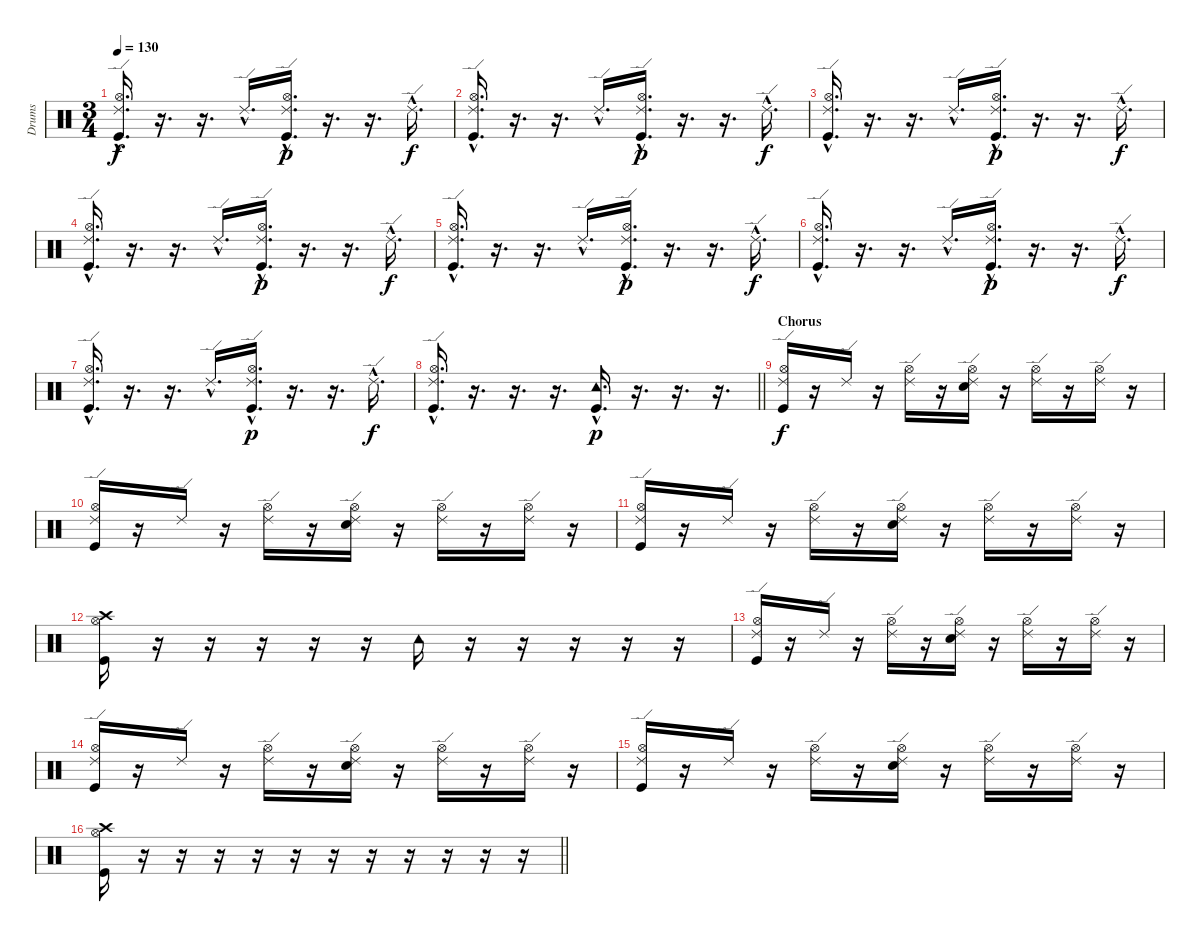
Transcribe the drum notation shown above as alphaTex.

\track ("Drums" "Drums") {instrument percussion}
\staff {score}
\articulation defaults
\ts (3 4)
\tempo 130
\clef neutral
\ks c
("Ride (edge) 2"{hac} "Hi-Hat (open)"{hac} "Kick (hit)"{hac}).16{d dy f} r.16{d} r.16{d} "Ride (edge) 2"{hac}.16{d} ("Ride (edge) 2"{hac} "Hi-Hat (open)"{hac} "Kick (hit)"{hac}).16{d dy p} r.16{d} r.16{d} "Ride (edge) 2"{hac}.16{d dy f} |
("Ride (edge) 2"{hac} "Hi-Hat (open)"{hac} "Kick (hit)"{hac}).16{d} r.16{d} r.16{d} "Ride (edge) 2"{hac}.16{d} ("Ride (edge) 2"{hac} "Hi-Hat (open)"{hac} "Kick (hit)"{hac}).16{d dy p} r.16{d} r.16{d} "Ride (edge) 2"{hac}.16{d dy f} |
("Ride (edge) 2"{hac} "Hi-Hat (open)"{hac} "Kick (hit)"{hac}).16{d} r.16{d} r.16{d} "Ride (edge) 2"{hac}.16{d} ("Ride (edge) 2"{hac} "Hi-Hat (open)"{hac} "Kick (hit)"{hac}).16{d dy p} r.16{d} r.16{d} "Ride (edge) 2"{hac}.16{d dy f} |
("Ride (edge) 2"{hac} "Hi-Hat (open)"{hac} "Kick (hit)"{hac}).16{d} r.16{d} r.16{d} "Ride (edge) 2"{hac}.16{d} ("Ride (edge) 2"{hac} "Hi-Hat (open)"{hac} "Kick (hit)"{hac}).16{d dy p} r.16{d} r.16{d} "Ride (edge) 2"{hac}.16{d dy f} |
("Ride (edge) 2"{hac} "Hi-Hat (open)"{hac} "Kick (hit)"{hac}).16{d} r.16{d} r.16{d} "Ride (edge) 2"{hac}.16{d} ("Ride (edge) 2"{hac} "Hi-Hat (open)"{hac} "Kick (hit)"{hac}).16{d dy p} r.16{d} r.16{d} "Ride (edge) 2"{hac}.16{d dy f} |
("Ride (edge) 2"{hac} "Hi-Hat (open)"{hac} "Kick (hit)"{hac}).16{d} r.16{d} r.16{d} "Ride (edge) 2"{hac}.16{d} ("Ride (edge) 2"{hac} "Hi-Hat (open)"{hac} "Kick (hit)"{hac}).16{d dy p} r.16{d} r.16{d} "Ride (edge) 2"{hac}.16{d dy f} |
("Ride (edge) 2"{hac} "Hi-Hat (open)"{hac} "Kick (hit)"{hac}).16{d} r.16{d} r.16{d} "Ride (edge) 2"{hac}.16{d} ("Ride (edge) 2"{hac} "Hi-Hat (open)"{hac} "Kick (hit)"{hac}).16{d dy p} r.16{d} r.16{d} "Ride (edge) 2"{hac}.16{d dy f} |
\barLineRight lightlight
("Ride (edge) 2"{hac} "Hi-Hat (open)"{hac} "Kick (hit)"{hac}).16{d} r.16{d} r.16{d} r.16{d} ("Tambourine (hit)"{hac} "Kick (hit)"{hac}).16{d dy p} r.16{d} r.16{d} r.16{d} |
\section ("" "Chorus")
("Ride (edge) 2" "Hi-Hat (open)" "Kick (hit)").16{dy f} r.16 "Ride (edge) 2".16 r.16 ("Ride (edge) 2" "Hi-Hat (open)").16 r.16 ("Ride (edge) 2" "Hi-Hat (open)" "Electric Snare (hit)").16 r.16 ("Ride (edge) 2" "Hi-Hat (open)").16 r.16 ("Ride (edge) 2" "Hi-Hat (open)").16 r.16 |
("Ride (edge) 2" "Hi-Hat (open)" "Kick (hit)").16 r.16 "Ride (edge) 2".16 r.16 ("Ride (edge) 2" "Hi-Hat (open)").16 r.16 ("Ride (edge) 2" "Hi-Hat (open)" "Electric Snare (hit)").16 r.16 ("Ride (edge) 2" "Hi-Hat (open)").16 r.16 ("Ride (edge) 2" "Hi-Hat (open)").16 r.16 |
("Ride (edge) 2" "Hi-Hat (open)" "Kick (hit)").16 r.16 "Ride (edge) 2".16 r.16 ("Ride (edge) 2" "Hi-Hat (open)").16 r.16 ("Ride (edge) 2" "Hi-Hat (open)" "Electric Snare (hit)").16 r.16 ("Ride (edge) 2" "Hi-Hat (open)").16 r.16 ("Ride (edge) 2" "Hi-Hat (open)").16 r.16 |
("Crash high (hit)" "Hi-Hat (open)" "Kick (hit)").16 r.16 r.16 r.16 r.16 r.16 "Tambourine (hit)".16 r.16 r.16 r.16 r.16 r.16 |
("Ride (edge) 2" "Hi-Hat (open)" "Kick (hit)").16 r.16 "Ride (edge) 2".16 r.16 ("Ride (edge) 2" "Hi-Hat (open)").16 r.16 ("Ride (edge) 2" "Hi-Hat (open)" "Electric Snare (hit)").16 r.16 ("Ride (edge) 2" "Hi-Hat (open)").16 r.16 ("Ride (edge) 2" "Hi-Hat (open)").16 r.16 |
("Ride (edge) 2" "Hi-Hat (open)" "Kick (hit)").16 r.16 "Ride (edge) 2".16 r.16 ("Ride (edge) 2" "Hi-Hat (open)").16 r.16 ("Ride (edge) 2" "Hi-Hat (open)" "Electric Snare (hit)").16 r.16 ("Ride (edge) 2" "Hi-Hat (open)").16 r.16 ("Ride (edge) 2" "Hi-Hat (open)").16 r.16 |
("Ride (edge) 2" "Hi-Hat (open)" "Kick (hit)").16 r.16 "Ride (edge) 2".16 r.16 ("Ride (edge) 2" "Hi-Hat (open)").16 r.16 ("Ride (edge) 2" "Hi-Hat (open)" "Electric Snare (hit)").16 r.16 ("Ride (edge) 2" "Hi-Hat (open)").16 r.16 ("Ride (edge) 2" "Hi-Hat (open)").16 r.16 |
\barLineRight lightlight
("Crash high (hit)" "Hi-Hat (open)" "Kick (hit)").16 r.16 r.16 r.16 r.16 r.16 r.16 r.16 r.16 r.16 r.16 r.16
